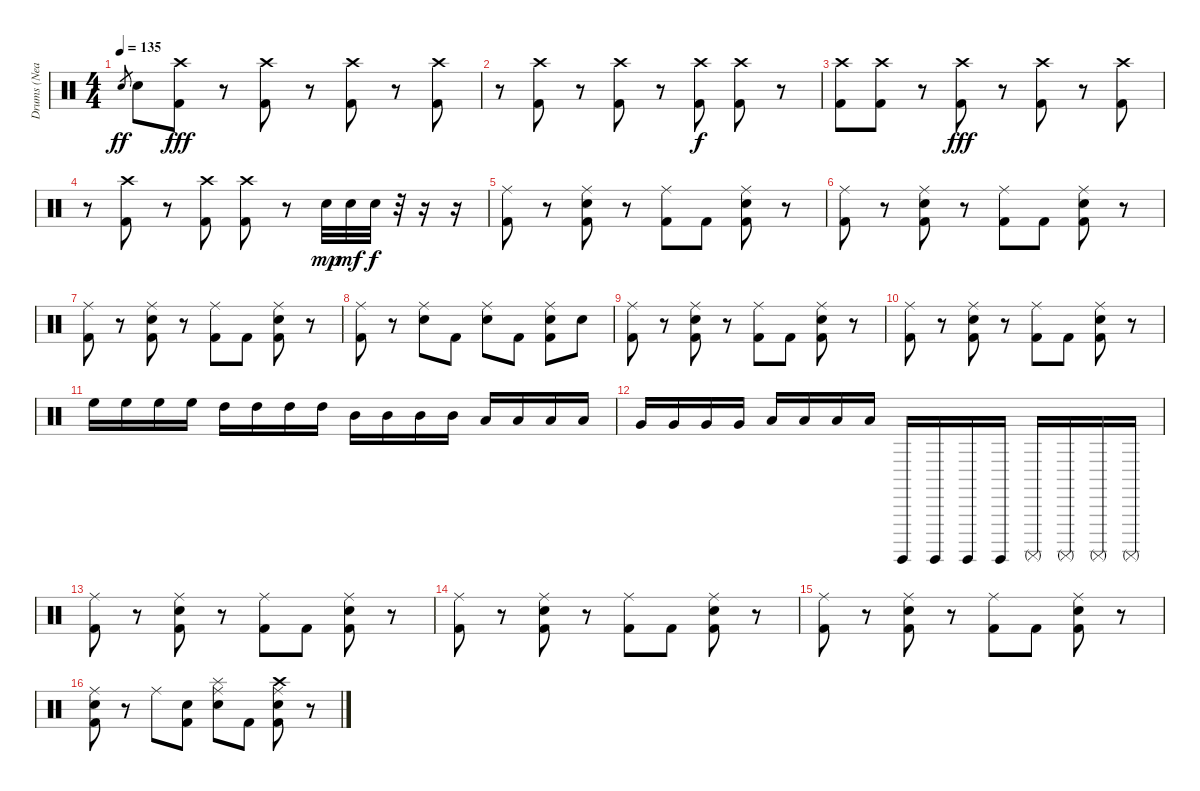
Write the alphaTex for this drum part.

\track ("Drums (Neal Peart)" "Drums (Nea") {instrument percussion}
\staff {score}
\articulation defaults
\ts (4 4)
\tempo 135
\clef neutral
\ks c "Electric Snare (hit)".8{gr dy ff} "Electric Snare (hit)".8
("Crash high (hit)" "Kick (hit) 2").8{dy fff} r.8{volume 0} ("Crash high (hit)" "Kick (hit) 2").8{volume 16} r.8{volume 0} ("Crash high (hit)" "Kick (hit) 2").8{volume 16} r.8{volume 0} ("Crash high (hit)" "Kick (hit) 2").8{volume 16} |
r.8{volume 0} ("Crash high (hit)" "Kick (hit) 2").8{volume 16} r.8{volume 0} ("Crash high (hit)" "Kick (hit) 2").8{volume 16} r.8{volume 0} ("Crash high (hit)" "Kick (hit) 2").8{dy f volume 16} ("Crash high (hit)" "Kick (hit) 2").8 r.8{volume 0} |
("Crash high (hit)" "Kick (hit) 2").8{volume 16} ("Crash high (hit)" "Kick (hit) 2").8 r.8{volume 0} ("Crash high (hit)" "Kick (hit) 2").8{dy fff volume 16} r.8{volume 0} ("Crash high (hit)" "Kick (hit) 2").8{volume 16} r.8{volume 0} ("Crash high (hit)" "Kick (hit) 2").8{volume 16} |
r.8{volume 0} ("Crash high (hit)" "Kick (hit) 2").8{volume 16} r.8{volume 0} ("Crash high (hit)" "Kick (hit) 2").8{volume 16} ("Crash high (hit)" "Kick (hit) 2").8 r.8 "Electric Snare (hit)".32{dy mp} "Electric Snare (hit)".32{dy mf} "Electric Snare (hit)".32{dy f} r.32 r.16 r.16 |
("Ride (middle)" "Kick (hit) 2").8 r.8 ("Ride (middle)" "Electric Snare (hit)" "Kick (hit) 2").8 r.8 ("Ride (middle)" "Kick (hit) 2").8 "Kick (hit) 2".8 ("Ride (middle)" "Electric Snare (hit)" "Kick (hit) 2").8 r.8 |
("Ride (middle)" "Kick (hit) 2").8 r.8 ("Ride (middle)" "Electric Snare (hit)" "Kick (hit) 2").8 r.8 ("Ride (middle)" "Kick (hit) 2").8 "Kick (hit) 2".8 ("Ride (middle)" "Electric Snare (hit)" "Kick (hit) 2").8 r.8 |
("Ride (middle)" "Kick (hit) 2").8 r.8 ("Ride (middle)" "Electric Snare (hit)" "Kick (hit) 2").8 r.8 ("Ride (middle)" "Kick (hit) 2").8 "Kick (hit) 2".8 ("Ride (middle)" "Electric Snare (hit)" "Kick (hit) 2").8 r.8 |
("Ride (middle)" "Kick (hit) 2").8 r.8 ("Ride (middle)" "Electric Snare (hit)").8 "Kick (hit) 2".8 ("Ride (middle)" "Electric Snare (hit)").8 "Kick (hit) 2".8 ("Ride (middle)" "Electric Snare (hit)" "Kick (hit) 2").8 "Electric Snare (hit)".8 |
("Ride (middle)" "Kick (hit) 2").8 r.8 ("Ride (middle)" "Electric Snare (hit)" "Kick (hit) 2").8 r.8 ("Ride (middle)" "Kick (hit) 2").8 "Kick (hit) 2".8 ("Ride (middle)" "Electric Snare (hit)" "Kick (hit) 2").8 r.8 |
("Ride (middle)" "Kick (hit) 2").8 r.8 ("Ride (middle)" "Electric Snare (hit)" "Kick (hit) 2").8 r.8 ("Ride (middle)" "Kick (hit) 2").8 "Kick (hit) 2".8 ("Ride (middle)" "Electric Snare (hit)" "Kick (hit) 2").8 r.8 |
"High Floor Tom (hit)".16 "High Floor Tom (hit)".16 "High Floor Tom (hit)".16 "High Floor Tom (hit)".16 "High Tom (hit)".16 "High Tom (hit)".16 "High Tom (hit)".16 "High Tom (hit)".16 "Mid Tom (hit)".16 "Mid Tom (hit)".16 "Mid Tom (hit)".16 "Mid Tom (hit)".16 "Low Tom (hit)".16 "Low Tom (hit)".16 "Low Tom (hit)".16 "Low Tom (hit)".16 |
"Very Low Tom (hit)".16 "Very Low Tom (hit)".16 "Very Low Tom (hit)".16 "Very Low Tom (hit)".16 "Low Floor Tom (hit)".16 "Low Floor Tom (hit)".16 "Low Floor Tom (hit)".16 "Low Floor Tom (hit)".16 "Surdo (hit)".16 "Surdo (hit)".16 "Surdo (hit)".16 "Surdo (hit)".16 "Surdo (mute)".16 "Surdo (mute)".16 "Surdo (mute)".16 "Surdo (mute)".16 |
("Ride (middle)" "Kick (hit) 2").8 r.8 ("Ride (middle)" "Electric Snare (hit)" "Kick (hit) 2").8 r.8 ("Ride (middle)" "Kick (hit) 2").8 "Kick (hit) 2".8 ("Ride (middle)" "Electric Snare (hit)" "Kick (hit) 2").8 r.8 |
("Ride (middle)" "Kick (hit) 2").8 r.8 ("Ride (middle)" "Electric Snare (hit)" "Kick (hit) 2").8 r.8 ("Ride (middle)" "Kick (hit) 2").8 "Kick (hit) 2".8 ("Ride (middle)" "Electric Snare (hit)" "Kick (hit) 2").8 r.8 |
("Ride (middle)" "Kick (hit) 2").8 r.8 ("Ride (middle)" "Electric Snare (hit)" "Kick (hit) 2").8 r.8 ("Ride (middle)" "Kick (hit) 2").8 "Kick (hit) 2".8 ("Ride (middle)" "Electric Snare (hit)" "Kick (hit) 2").8 r.8 |
("Ride (middle)" "Electric Snare (hit)" "Kick (hit) 2").8 r.8 "Ride (middle)".8 ("Electric Snare (hit)" "Kick (hit) 2").8 ("Splash (hit)" "Ride (middle)" "Electric Snare (hit)").8 "Kick (hit) 2".8 ("Crash high (hit)" "Ride (middle)" "Electric Snare (hit)" "Kick (hit) 2").8 r.8
